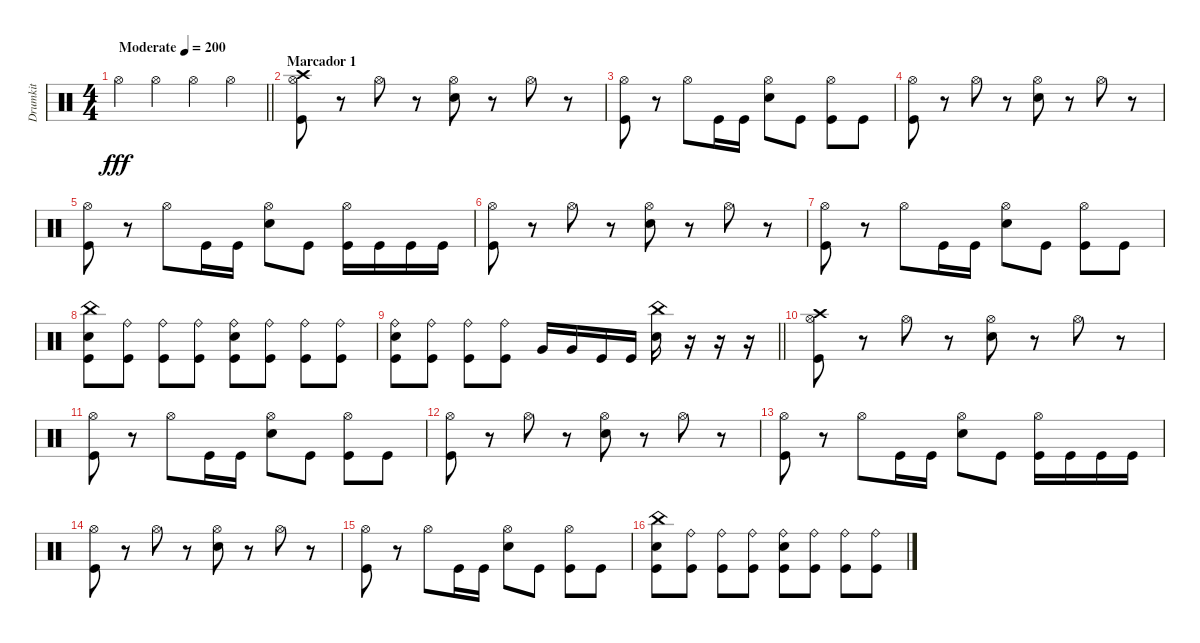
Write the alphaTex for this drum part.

\track ("Drumkit" "Drumkit") {instrument percussion}
\staff {score}
\articulation defaults
\ts (4 4)
\tempo (200 "Moderate")
\clef neutral
\barLineRight lightlight
\ks c "Hi-Hat (open)".4{dy fff} "Hi-Hat (open)".4 "Hi-Hat (open)".4 "Hi-Hat (open)".4
|
\section ("" "Marcador 1")
("Crash high (hit)" "Hi-Hat (open)" "Kick (hit)").8 r.8 "Hi-Hat (open)".8 r.8 ("Hi-Hat (open)" "Snare (hit) 2").8 r.8 "Hi-Hat (open)".8 r.8 |
("Hi-Hat (open)" "Kick (hit)").8 r.8 "Hi-Hat (open)".8 "Kick (hit)".16 "Kick (hit)".16 ("Hi-Hat (open)" "Snare (hit) 2").8 "Kick (hit)".8 ("Hi-Hat (open)" "Kick (hit)").8 "Kick (hit)".8 |
("Hi-Hat (open)" "Kick (hit)").8 r.8 "Hi-Hat (open)".8 r.8 ("Hi-Hat (open)" "Snare (hit) 2").8 r.8 "Hi-Hat (open)".8 r.8 |
("Hi-Hat (open)" "Kick (hit)").8 r.8 "Hi-Hat (open)".8 "Kick (hit)".16 "Kick (hit)".16 ("Hi-Hat (open)" "Snare (hit) 2").8 "Kick (hit)".8 ("Hi-Hat (open)" "Kick (hit)").16 "Kick (hit)".16 "Kick (hit)".16 "Kick (hit)".16 |
("Hi-Hat (open)" "Kick (hit)").8 r.8 "Hi-Hat (open)".8 r.8 ("Hi-Hat (open)" "Snare (hit) 2").8 r.8 "Hi-Hat (open)".8 r.8 |
("Hi-Hat (open)" "Kick (hit)").8 r.8 "Hi-Hat (open)".8 "Kick (hit)".16 "Kick (hit)".16 ("Hi-Hat (open)" "Snare (hit) 2").8 "Kick (hit)".8 ("Hi-Hat (open)" "Kick (hit)").8 "Kick (hit)".8 |
("China (hit)" "Snare (hit) 2" "Kick (hit)").8 ("Ride (bell)" "Kick (hit)").8 ("Ride (bell)" "Kick (hit)").8 ("Ride (bell)" "Kick (hit)").8 ("Snare (hit) 2" "Ride (bell)" "Kick (hit)").8 ("Ride (bell)" "Kick (hit)").8 ("Ride (bell)" "Kick (hit)").8 ("Ride (bell)" "Kick (hit)").8 |
\barLineRight lightlight
("Snare (hit) 2" "Ride (bell)" "Kick (hit)").8 ("Ride (bell)" "Kick (hit)").8 ("Ride (bell)" "Kick (hit)").8 ("Ride (bell)" "Kick (hit)").8 "Very Low Tom (hit)".16 "Very Low Tom (hit)".16 "Kick (hit)".16 "Kick (hit)".16 ("China (hit)" "Snare (hit) 2").16 r.16 r.16 r.16 |
("Crash high (hit)" "Hi-Hat (open)" "Kick (hit)").8 r.8 "Hi-Hat (open)".8 r.8 ("Hi-Hat (open)" "Snare (hit) 2").8 r.8 "Hi-Hat (open)".8 r.8 |
("Hi-Hat (open)" "Kick (hit)").8 r.8 "Hi-Hat (open)".8 "Kick (hit)".16 "Kick (hit)".16 ("Hi-Hat (open)" "Snare (hit) 2").8 "Kick (hit)".8 ("Hi-Hat (open)" "Kick (hit)").8 "Kick (hit)".8 |
("Hi-Hat (open)" "Kick (hit)").8 r.8 "Hi-Hat (open)".8 r.8 ("Hi-Hat (open)" "Snare (hit) 2").8 r.8 "Hi-Hat (open)".8 r.8 |
("Hi-Hat (open)" "Kick (hit)").8 r.8 "Hi-Hat (open)".8 "Kick (hit)".16 "Kick (hit)".16 ("Hi-Hat (open)" "Snare (hit) 2").8 "Kick (hit)".8 ("Hi-Hat (open)" "Kick (hit)").16 "Kick (hit)".16 "Kick (hit)".16 "Kick (hit)".16 |
("Hi-Hat (open)" "Kick (hit)").8 r.8 "Hi-Hat (open)".8 r.8 ("Hi-Hat (open)" "Snare (hit) 2").8 r.8 "Hi-Hat (open)".8 r.8 |
("Hi-Hat (open)" "Kick (hit)").8 r.8 "Hi-Hat (open)".8 "Kick (hit)".16 "Kick (hit)".16 ("Hi-Hat (open)" "Snare (hit) 2").8 "Kick (hit)".8 ("Hi-Hat (open)" "Kick (hit)").8 "Kick (hit)".8 |
("China (hit)" "Snare (hit) 2" "Kick (hit)").8 ("Ride (bell)" "Kick (hit)").8 ("Ride (bell)" "Kick (hit)").8 ("Ride (bell)" "Kick (hit)").8 ("Snare (hit) 2" "Ride (bell)" "Kick (hit)").8 ("Ride (bell)" "Kick (hit)").8 ("Ride (bell)" "Kick (hit)").8 ("Ride (bell)" "Kick (hit)").8
